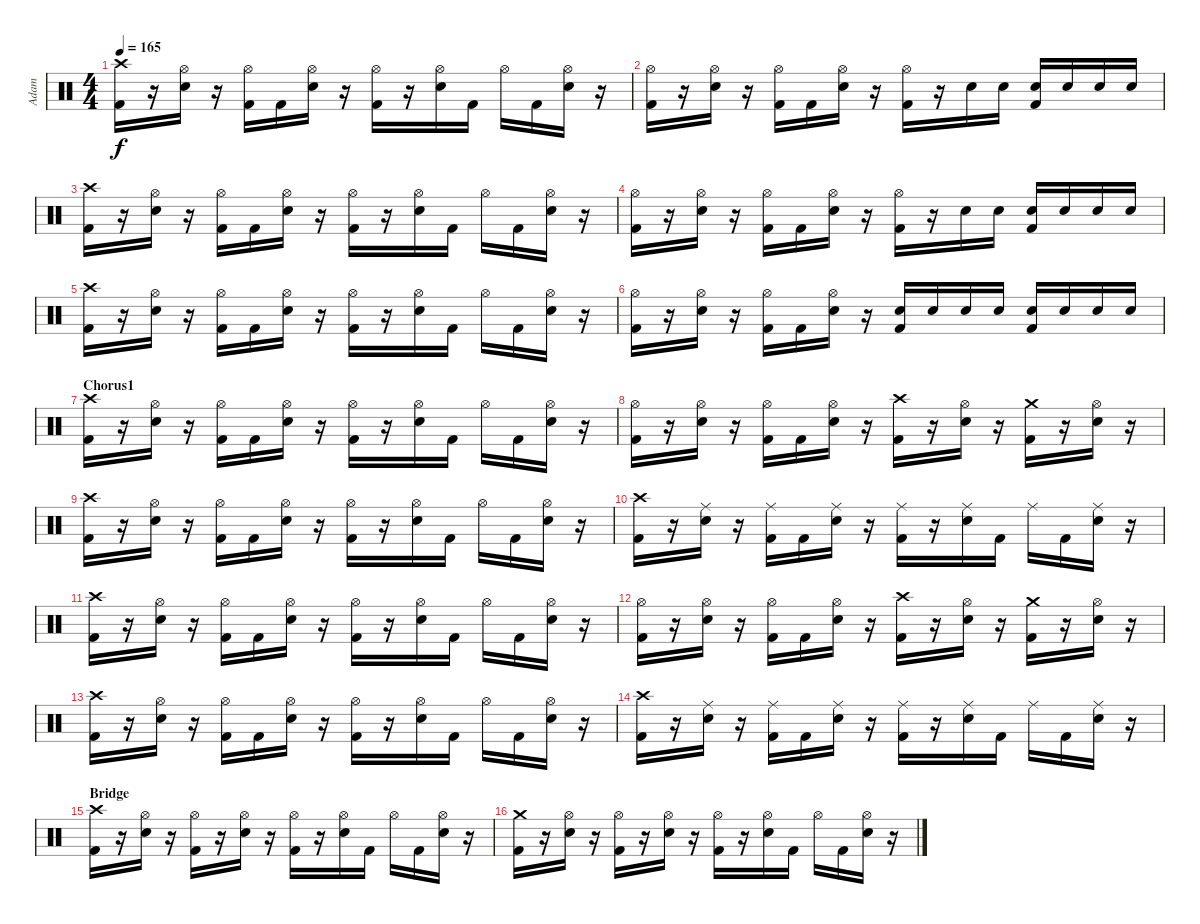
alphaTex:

\track ("Adam" "Adam") {instrument percussion}
\staff {score}
\articulation defaults
\ts (4 4)
\tempo 165
\clef neutral
\ks c
("Crash high (hit)" "Kick (hit) 2").16{dy f} r.16 ("Hi-Hat (open)" "Electric Snare (hit)").16 r.16 ("Hi-Hat (open)" "Kick (hit) 2").16 "Kick (hit) 2".16 ("Hi-Hat (open)" "Electric Snare (hit)").16 r.16 ("Hi-Hat (open)" "Kick (hit) 2").16 r.16 ("Hi-Hat (open)" "Electric Snare (hit)").16 "Kick (hit) 2".16 "Hi-Hat (open)".16 "Kick (hit) 2".16 ("Hi-Hat (open)" "Electric Snare (hit)").16 r.16 |
("Hi-Hat (open)" "Kick (hit) 2").16 r.16 ("Hi-Hat (open)" "Electric Snare (hit)").16 r.16 ("Hi-Hat (open)" "Kick (hit) 2").16 "Kick (hit) 2".16 ("Hi-Hat (open)" "Electric Snare (hit)").16 r.16 ("Hi-Hat (open)" "Kick (hit) 2").16 r.16 "Electric Snare (hit)".16 "Electric Snare (hit)".16 ("Electric Snare (hit)" "Kick (hit) 2").16 "Electric Snare (hit)".16 "Electric Snare (hit)".16 "Electric Snare (hit)".16 |
("Crash high (hit)" "Kick (hit) 2").16 r.16 ("Hi-Hat (open)" "Electric Snare (hit)").16 r.16 ("Hi-Hat (open)" "Kick (hit) 2").16 "Kick (hit) 2".16 ("Hi-Hat (open)" "Electric Snare (hit)").16 r.16 ("Hi-Hat (open)" "Kick (hit) 2").16 r.16 ("Hi-Hat (open)" "Electric Snare (hit)").16 "Kick (hit) 2".16 "Hi-Hat (open)".16 "Kick (hit) 2".16 ("Hi-Hat (open)" "Electric Snare (hit)").16 r.16 |
("Hi-Hat (open)" "Kick (hit) 2").16 r.16 ("Hi-Hat (open)" "Electric Snare (hit)").16 r.16 ("Hi-Hat (open)" "Kick (hit) 2").16 "Kick (hit) 2".16 ("Hi-Hat (open)" "Electric Snare (hit)").16 r.16 ("Hi-Hat (open)" "Kick (hit) 2").16 r.16 "Electric Snare (hit)".16 "Electric Snare (hit)".16 ("Electric Snare (hit)" "Kick (hit) 2").16 "Electric Snare (hit)".16 "Electric Snare (hit)".16 "Electric Snare (hit)".16 |
("Crash high (hit)" "Kick (hit) 2").16 r.16 ("Hi-Hat (open)" "Electric Snare (hit)").16 r.16 ("Hi-Hat (open)" "Kick (hit) 2").16 "Kick (hit) 2".16 ("Hi-Hat (open)" "Electric Snare (hit)").16 r.16 ("Hi-Hat (open)" "Kick (hit) 2").16 r.16 ("Hi-Hat (open)" "Electric Snare (hit)").16 "Kick (hit) 2".16 "Hi-Hat (open)".16 "Kick (hit) 2".16 ("Hi-Hat (open)" "Electric Snare (hit)").16 r.16 |
("Hi-Hat (open)" "Kick (hit) 2").16 r.16 ("Hi-Hat (open)" "Electric Snare (hit)").16 r.16 ("Hi-Hat (open)" "Kick (hit) 2").16 "Kick (hit) 2".16 ("Hi-Hat (open)" "Electric Snare (hit)").16 r.16 ("Electric Snare (hit)" "Kick (hit) 2").16 "Electric Snare (hit)".16 "Electric Snare (hit)".16 "Electric Snare (hit)".16 ("Electric Snare (hit)" "Kick (hit) 2").16 "Electric Snare (hit)".16 "Electric Snare (hit)".16 "Electric Snare (hit)".16 |
\section ("" "Chorus1")
("Crash high (hit)" "Kick (hit) 2").16 r.16 ("Hi-Hat (open)" "Electric Snare (hit)").16 r.16 ("Hi-Hat (open)" "Kick (hit) 2").16 "Kick (hit) 2".16 ("Hi-Hat (open)" "Electric Snare (hit)").16 r.16 ("Hi-Hat (open)" "Kick (hit) 2").16 r.16 ("Hi-Hat (open)" "Electric Snare (hit)").16 "Kick (hit) 2".16 "Hi-Hat (open)".16 "Kick (hit) 2".16 ("Hi-Hat (open)" "Electric Snare (hit)").16 r.16 |
("Hi-Hat (open)" "Kick (hit) 2").16 r.16 ("Hi-Hat (open)" "Electric Snare (hit)").16 r.16 ("Hi-Hat (open)" "Kick (hit) 2").16 "Kick (hit) 2".16 ("Hi-Hat (open)" "Electric Snare (hit)").16 r.16 ("Crash high (hit)" "Kick (hit) 2").16 r.16 ("Hi-Hat (open)" "Electric Snare (hit)").16 r.16 ("Crash medium (hit)" "Kick (hit) 2").16 r.16 ("Hi-Hat (open)" "Electric Snare (hit)").16 r.16 |
("Crash high (hit)" "Kick (hit) 2").16 r.16 ("Hi-Hat (open)" "Electric Snare (hit)").16 r.16 ("Hi-Hat (open)" "Kick (hit) 2").16 "Kick (hit) 2".16 ("Hi-Hat (open)" "Electric Snare (hit)").16 r.16 ("Hi-Hat (open)" "Kick (hit) 2").16 r.16 ("Hi-Hat (open)" "Electric Snare (hit)").16 "Kick (hit) 2".16 "Hi-Hat (open)".16 "Kick (hit) 2".16 ("Hi-Hat (open)" "Electric Snare (hit)").16 r.16 |
("Crash high (hit)" "Kick (hit) 2").16 r.16 ("Ride (middle)" "Electric Snare (hit)").16 r.16 ("Ride (middle)" "Kick (hit) 2").16 "Kick (hit) 2".16 ("Ride (middle)" "Electric Snare (hit)").16 r.16 ("Ride (middle)" "Kick (hit) 2").16 r.16 ("Ride (middle)" "Electric Snare (hit)").16 "Kick (hit) 2".16 "Ride (middle)".16 "Kick (hit) 2".16 ("Ride (middle)" "Electric Snare (hit)").16 r.16 |
("Crash high (hit)" "Kick (hit) 2").16 r.16 ("Hi-Hat (open)" "Electric Snare (hit)").16 r.16 ("Hi-Hat (open)" "Kick (hit) 2").16 "Kick (hit) 2".16 ("Hi-Hat (open)" "Electric Snare (hit)").16 r.16 ("Hi-Hat (open)" "Kick (hit) 2").16 r.16 ("Hi-Hat (open)" "Electric Snare (hit)").16 "Kick (hit) 2".16 "Hi-Hat (open)".16 "Kick (hit) 2".16 ("Hi-Hat (open)" "Electric Snare (hit)").16 r.16 |
("Hi-Hat (open)" "Kick (hit) 2").16 r.16 ("Hi-Hat (open)" "Electric Snare (hit)").16 r.16 ("Hi-Hat (open)" "Kick (hit) 2").16 "Kick (hit) 2".16 ("Hi-Hat (open)" "Electric Snare (hit)").16 r.16 ("Crash high (hit)" "Kick (hit) 2").16 r.16 ("Hi-Hat (open)" "Electric Snare (hit)").16 r.16 ("Crash medium (hit)" "Kick (hit) 2").16 r.16 ("Hi-Hat (open)" "Electric Snare (hit)").16 r.16 |
("Crash high (hit)" "Kick (hit) 2").16 r.16 ("Hi-Hat (open)" "Electric Snare (hit)").16 r.16 ("Hi-Hat (open)" "Kick (hit) 2").16 "Kick (hit) 2".16 ("Hi-Hat (open)" "Electric Snare (hit)").16 r.16 ("Hi-Hat (open)" "Kick (hit) 2").16 r.16 ("Hi-Hat (open)" "Electric Snare (hit)").16 "Kick (hit) 2".16 "Hi-Hat (open)".16 "Kick (hit) 2".16 ("Hi-Hat (open)" "Electric Snare (hit)").16 r.16 |
("Crash high (hit)" "Kick (hit) 2").16 r.16 ("Ride (middle)" "Electric Snare (hit)").16 r.16 ("Ride (middle)" "Kick (hit) 2").16 "Kick (hit) 2".16 ("Ride (middle)" "Electric Snare (hit)").16 r.16 ("Ride (middle)" "Kick (hit) 2").16 r.16 ("Ride (middle)" "Electric Snare (hit)").16 "Kick (hit) 2".16 "Ride (middle)".16 "Kick (hit) 2".16 ("Ride (middle)" "Electric Snare (hit)").16 r.16 |
\section ("" "Bridge")
("Crash high (hit)" "Kick (hit) 2").16 r.16 ("Hi-Hat (open)" "Electric Snare (hit)").16 r.16 ("Hi-Hat (open)" "Kick (hit) 2").16 r.16 ("Hi-Hat (open)" "Electric Snare (hit)").16 r.16 ("Hi-Hat (open)" "Kick (hit) 2").16 r.16 ("Hi-Hat (open)" "Electric Snare (hit)").16 "Kick (hit) 2".16 "Hi-Hat (open)".16 "Kick (hit) 2".16 ("Hi-Hat (open)" "Electric Snare (hit)").16 r.16 |
("Crash medium (hit)" "Kick (hit) 2").16 r.16 ("Hi-Hat (open)" "Electric Snare (hit)").16 r.16 ("Hi-Hat (open)" "Kick (hit) 2").16 r.16 ("Hi-Hat (open)" "Electric Snare (hit)").16 r.16 ("Hi-Hat (open)" "Kick (hit) 2").16 r.16 ("Hi-Hat (open)" "Electric Snare (hit)").16 "Kick (hit) 2".16 "Hi-Hat (open)".16 "Kick (hit) 2".16 ("Hi-Hat (open)" "Electric Snare (hit)").16 r.16
